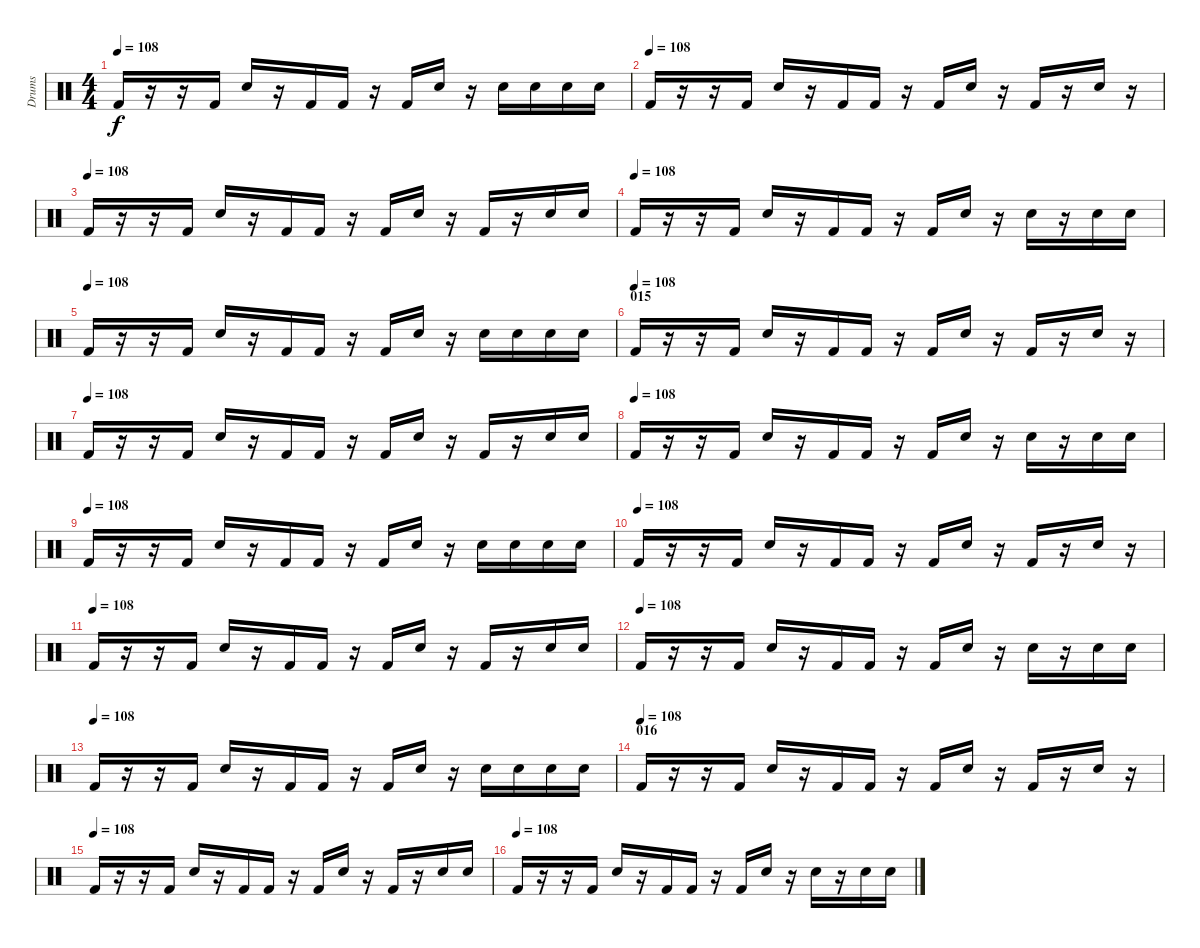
\track ("Drums" "Drums") {instrument percussion}
\staff {score}
\articulation defaults
\ts (4 4)
\tempo 108
\clef neutral
\ks c "Kick (hit) 2".16{dy f}
r.16 r.16 "Kick (hit) 2".16 "Electric Snare (hit)".16 r.16 "Kick (hit) 2".16 "Kick (hit) 2".16 r.16 "Kick (hit) 2".16 "Electric Snare (hit)".16 r.16 "Electric Snare (hit)".16 "Electric Snare (hit)".16 "Electric Snare (hit)".16 "Electric Snare (hit)".16 |
\tempo (108)
"Kick (hit) 2".16 r.16 r.16 "Kick (hit) 2".16 "Electric Snare (hit)".16 r.16 "Kick (hit) 2".16 "Kick (hit) 2".16 r.16 "Kick (hit) 2".16 "Electric Snare (hit)".16 r.16 "Kick (hit) 2".16 r.16 "Electric Snare (hit)".16 r.16 |
\tempo (108)
"Kick (hit) 2".16 r.16 r.16 "Kick (hit) 2".16 "Electric Snare (hit)".16 r.16 "Kick (hit) 2".16 "Kick (hit) 2".16 r.16 "Kick (hit) 2".16 "Electric Snare (hit)".16 r.16 "Kick (hit) 2".16 r.16 "Electric Snare (hit)".16 "Electric Snare (hit)".16 |
\tempo (108)
"Kick (hit) 2".16 r.16 r.16 "Kick (hit) 2".16 "Electric Snare (hit)".16 r.16 "Kick (hit) 2".16 "Kick (hit) 2".16 r.16 "Kick (hit) 2".16 "Electric Snare (hit)".16 r.16 "Electric Snare (hit)".16 r.16 "Electric Snare (hit)".16 "Electric Snare (hit)".16 |
\tempo (108)
"Kick (hit) 2".16 r.16 r.16 "Kick (hit) 2".16 "Electric Snare (hit)".16 r.16 "Kick (hit) 2".16 "Kick (hit) 2".16 r.16 "Kick (hit) 2".16 "Electric Snare (hit)".16 r.16 "Electric Snare (hit)".16 "Electric Snare (hit)".16 "Electric Snare (hit)".16 "Electric Snare (hit)".16 |
\section ("" "015")
\tempo (108)
"Kick (hit) 2".16 r.16 r.16 "Kick (hit) 2".16 "Electric Snare (hit)".16 r.16 "Kick (hit) 2".16 "Kick (hit) 2".16 r.16 "Kick (hit) 2".16 "Electric Snare (hit)".16 r.16 "Kick (hit) 2".16 r.16 "Electric Snare (hit)".16 r.16 |
\tempo (108)
"Kick (hit) 2".16 r.16 r.16 "Kick (hit) 2".16 "Electric Snare (hit)".16 r.16 "Kick (hit) 2".16 "Kick (hit) 2".16 r.16 "Kick (hit) 2".16 "Electric Snare (hit)".16 r.16 "Kick (hit) 2".16 r.16 "Electric Snare (hit)".16 "Electric Snare (hit)".16 |
\tempo (108)
"Kick (hit) 2".16 r.16 r.16 "Kick (hit) 2".16 "Electric Snare (hit)".16 r.16 "Kick (hit) 2".16 "Kick (hit) 2".16 r.16 "Kick (hit) 2".16 "Electric Snare (hit)".16 r.16 "Electric Snare (hit)".16 r.16 "Electric Snare (hit)".16 "Electric Snare (hit)".16 |
\tempo (108)
"Kick (hit) 2".16 r.16 r.16 "Kick (hit) 2".16 "Electric Snare (hit)".16 r.16 "Kick (hit) 2".16 "Kick (hit) 2".16 r.16 "Kick (hit) 2".16 "Electric Snare (hit)".16 r.16 "Electric Snare (hit)".16 "Electric Snare (hit)".16 "Electric Snare (hit)".16 "Electric Snare (hit)".16 |
\tempo (108)
"Kick (hit) 2".16 r.16 r.16 "Kick (hit) 2".16 "Electric Snare (hit)".16 r.16 "Kick (hit) 2".16 "Kick (hit) 2".16 r.16 "Kick (hit) 2".16 "Electric Snare (hit)".16 r.16 "Kick (hit) 2".16 r.16 "Electric Snare (hit)".16 r.16 |
\tempo (108)
"Kick (hit) 2".16 r.16 r.16 "Kick (hit) 2".16 "Electric Snare (hit)".16 r.16 "Kick (hit) 2".16 "Kick (hit) 2".16 r.16 "Kick (hit) 2".16 "Electric Snare (hit)".16 r.16 "Kick (hit) 2".16 r.16 "Electric Snare (hit)".16 "Electric Snare (hit)".16 |
\tempo (108)
"Kick (hit) 2".16 r.16 r.16 "Kick (hit) 2".16 "Electric Snare (hit)".16 r.16 "Kick (hit) 2".16 "Kick (hit) 2".16 r.16 "Kick (hit) 2".16 "Electric Snare (hit)".16 r.16 "Electric Snare (hit)".16 r.16 "Electric Snare (hit)".16 "Electric Snare (hit)".16 |
\tempo (108)
"Kick (hit) 2".16 r.16 r.16 "Kick (hit) 2".16 "Electric Snare (hit)".16 r.16 "Kick (hit) 2".16 "Kick (hit) 2".16 r.16 "Kick (hit) 2".16 "Electric Snare (hit)".16 r.16 "Electric Snare (hit)".16 "Electric Snare (hit)".16 "Electric Snare (hit)".16 "Electric Snare (hit)".16 |
\section ("" "016")
\tempo (108)
"Kick (hit) 2".16 r.16 r.16 "Kick (hit) 2".16 "Electric Snare (hit)".16 r.16 "Kick (hit) 2".16 "Kick (hit) 2".16 r.16 "Kick (hit) 2".16 "Electric Snare (hit)".16 r.16 "Kick (hit) 2".16 r.16 "Electric Snare (hit)".16 r.16 |
\tempo (108)
"Kick (hit) 2".16 r.16 r.16 "Kick (hit) 2".16 "Electric Snare (hit)".16 r.16 "Kick (hit) 2".16 "Kick (hit) 2".16 r.16 "Kick (hit) 2".16 "Electric Snare (hit)".16 r.16 "Kick (hit) 2".16 r.16 "Electric Snare (hit)".16 "Electric Snare (hit)".16 |
\tempo (108)
"Kick (hit) 2".16 r.16 r.16 "Kick (hit) 2".16 "Electric Snare (hit)".16 r.16 "Kick (hit) 2".16 "Kick (hit) 2".16 r.16 "Kick (hit) 2".16 "Electric Snare (hit)".16 r.16 "Electric Snare (hit)".16 r.16 "Electric Snare (hit)".16 "Electric Snare (hit)".16
